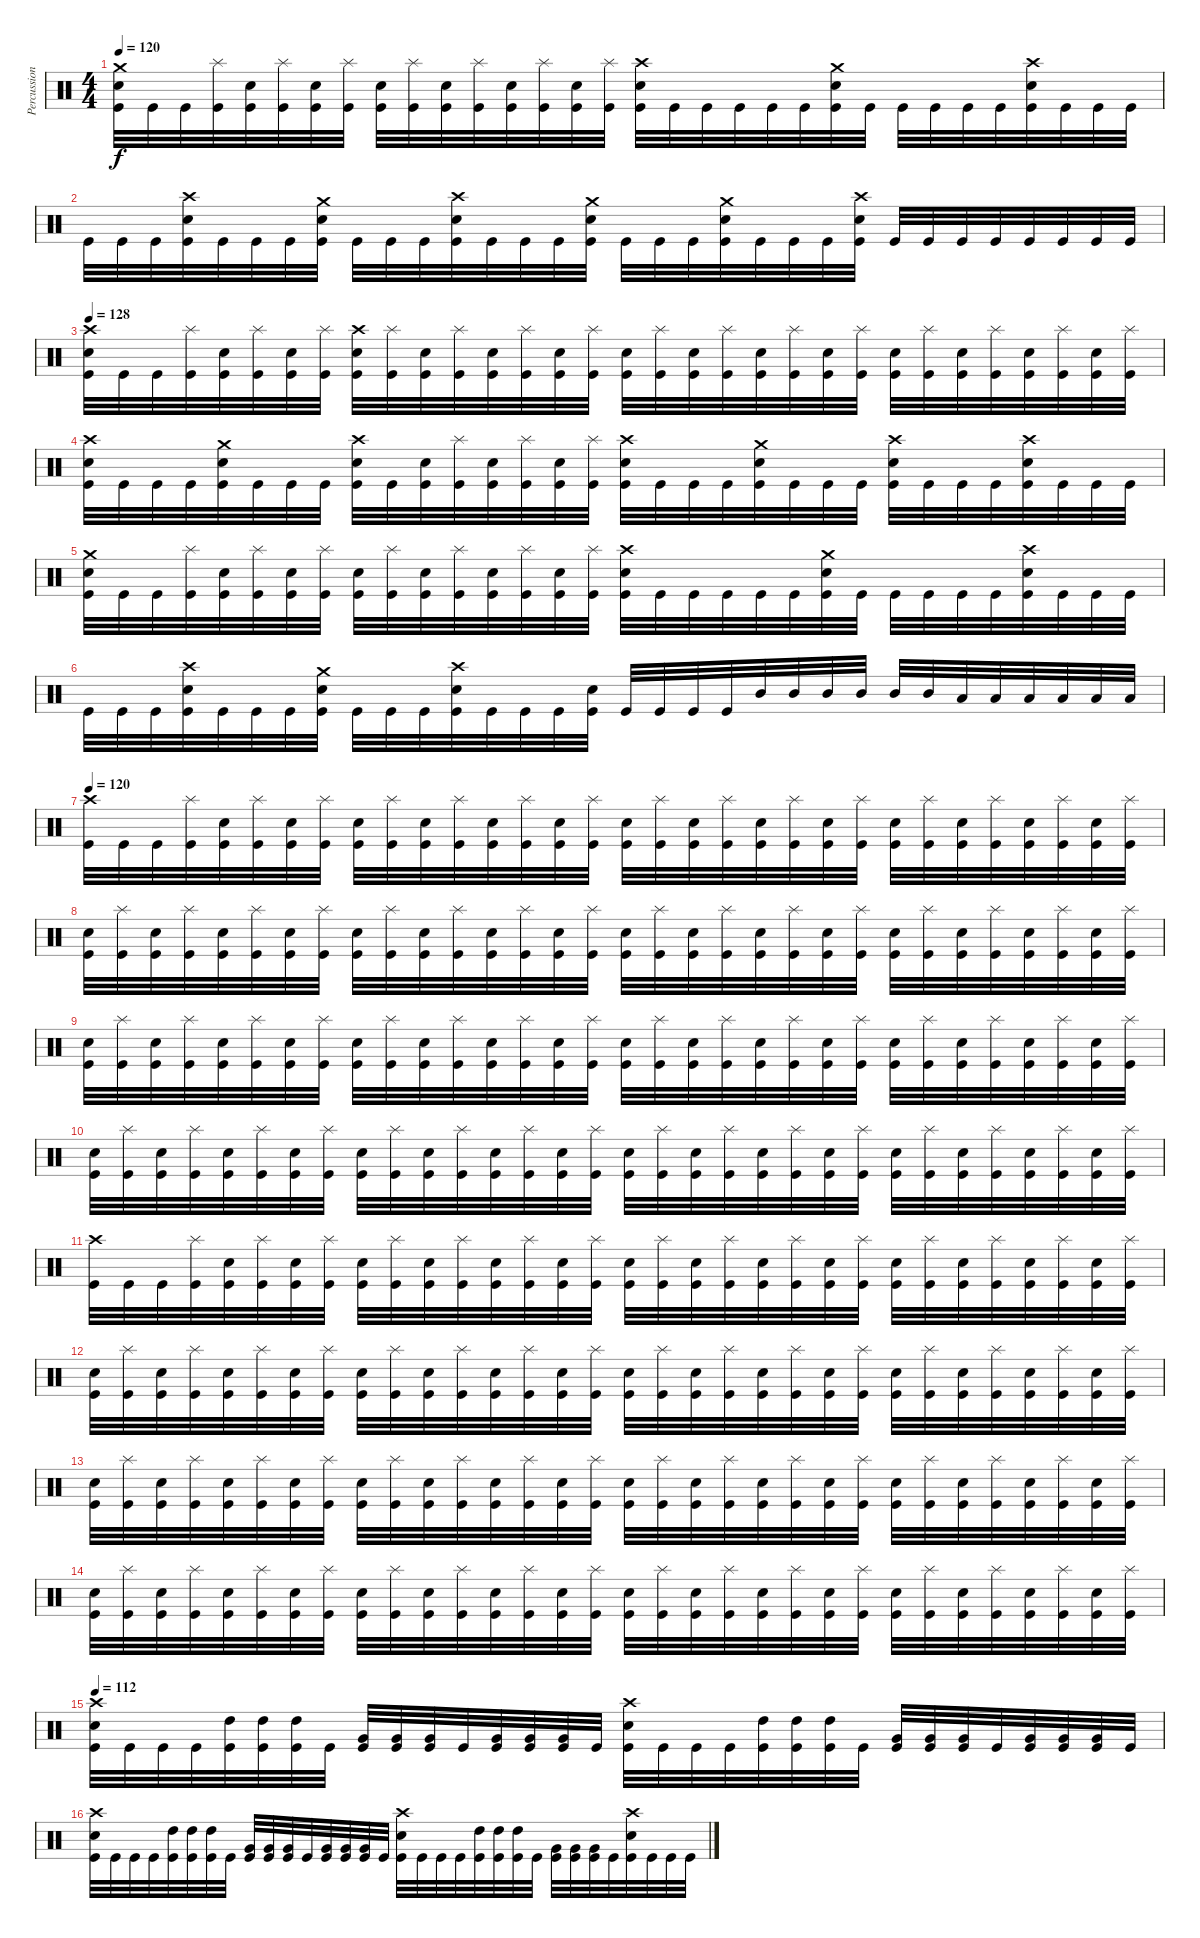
\track ("Percussion" "Percussion") {instrument percussion}
\staff {score}
\articulation defaults
\ts (4 4)
\tempo 120
\clef neutral
\ks c
("Crash medium (hit)" "Electric Snare (hit)" "Kick (hit)").32{dy f} "Kick (hit)".32 "Kick (hit)".32 ("Splash (hit)" "Kick (hit)").32 ("Electric Snare (hit)" "Kick (hit)").32 ("Splash (hit)" "Kick (hit)").32 ("Electric Snare (hit)" "Kick (hit)").32 ("Splash (hit)" "Kick (hit)").32 ("Electric Snare (hit)" "Kick (hit)").32 ("Splash (hit)" "Kick (hit)").32 ("Electric Snare (hit)" "Kick (hit)").32 ("Splash (hit)" "Kick (hit)").32 ("Electric Snare (hit)" "Kick (hit)").32 ("Splash (hit)" "Kick (hit)").32 ("Electric Snare (hit)" "Kick (hit)").32 ("Splash (hit)" "Kick (hit)").32 ("Crash high (hit)" "Electric Snare (hit)" "Kick (hit)").32 "Kick (hit)".32 "Kick (hit)".32 "Kick (hit)".32 "Kick (hit)".32 "Kick (hit)".32 ("Crash medium (hit)" "Electric Snare (hit)" "Kick (hit)").32 "Kick (hit)".32 "Kick (hit)".32 "Kick (hit)".32 "Kick (hit)".32 "Kick (hit)".32 ("Crash high (hit)" "Electric Snare (hit)" "Kick (hit)").32 "Kick (hit)".32 "Kick (hit)".32 "Kick (hit)".32 |
"Kick (hit)".32 "Kick (hit)".32 "Kick (hit)".32 ("Crash high (hit)" "Electric Snare (hit)" "Kick (hit)").32 "Kick (hit)".32 "Kick (hit)".32 "Kick (hit)".32 ("Crash medium (hit)" "Electric Snare (hit)" "Kick (hit)").32 "Kick (hit)".32 "Kick (hit)".32 "Kick (hit)".32 ("Crash high (hit)" "Electric Snare (hit)" "Kick (hit)").32 "Kick (hit)".32 "Kick (hit)".32 "Kick (hit)".32 ("Crash medium (hit)" "Electric Snare (hit)" "Kick (hit)").32 "Kick (hit)".32 "Kick (hit)".32 "Kick (hit)".32 ("Crash medium (hit)" "Electric Snare (hit)" "Kick (hit)").32 "Kick (hit)".32 "Kick (hit)".32 "Kick (hit)".32 ("Crash high (hit)" "Electric Snare (hit)" "Kick (hit)").32 "Kick (hit)".32 "Kick (hit)".32 "Kick (hit)".32 "Kick (hit)".32 "Kick (hit)".32 "Kick (hit)".32 "Kick (hit)".32 "Kick (hit)".32 |
\tempo 128
("Crash high (hit)" "Snare (hit) 2" "Kick (hit)").32 "Kick (hit)".32 "Kick (hit)".32 ("Splash (hit)" "Kick (hit)").32 ("Electric Snare (hit)" "Kick (hit)").32 ("Splash (hit)" "Kick (hit)").32 ("Electric Snare (hit)" "Kick (hit)").32 ("Splash (hit)" "Kick (hit)").32 ("Crash high (hit)" "Electric Snare (hit)" "Kick (hit)").32 ("Splash (hit)" "Kick (hit)").32 ("Electric Snare (hit)" "Kick (hit)").32 ("Splash (hit)" "Kick (hit)").32 ("Electric Snare (hit)" "Kick (hit)").32 ("Splash (hit)" "Kick (hit)").32 ("Electric Snare (hit)" "Kick (hit)").32 ("Splash (hit)" "Kick (hit)").32 ("Electric Snare (hit)" "Kick (hit)").32 ("Splash (hit)" "Kick (hit)").32 ("Electric Snare (hit)" "Kick (hit)").32 ("Splash (hit)" "Kick (hit)").32 ("Electric Snare (hit)" "Kick (hit)").32 ("Splash (hit)" "Kick (hit)").32 ("Electric Snare (hit)" "Kick (hit)").32 ("Splash (hit)" "Kick (hit)").32 ("Electric Snare (hit)" "Kick (hit)").32 ("Splash (hit)" "Kick (hit)").32 ("Electric Snare (hit)" "Kick (hit)").32 ("Splash (hit)" "Kick (hit)").32 ("Electric Snare (hit)" "Kick (hit)").32 ("Splash (hit)" "Kick (hit)").32 ("Electric Snare (hit)" "Kick (hit)").32 ("Splash (hit)" "Kick (hit)").32 |
("Crash high (hit)" "Electric Snare (hit)" "Kick (hit)").32 "Kick (hit)".32 "Kick (hit)".32 "Kick (hit)".32 ("Crash medium (hit)" "Electric Snare (hit)" "Kick (hit)").32 "Kick (hit)".32 "Kick (hit)".32 "Kick (hit)".32 ("Crash high (hit)" "Electric Snare (hit)" "Kick (hit)").32 "Kick (hit)".32 ("Electric Snare (hit)" "Kick (hit)").32 ("Splash (hit)" "Kick (hit)").32 ("Electric Snare (hit)" "Kick (hit)").32 ("Splash (hit)" "Kick (hit)").32 ("Electric Snare (hit)" "Kick (hit)").32 ("Splash (hit)" "Kick (hit)").32 ("Crash high (hit)" "Electric Snare (hit)" "Kick (hit)").32 "Kick (hit)".32 "Kick (hit)".32 "Kick (hit)".32 ("Crash medium (hit)" "Electric Snare (hit)" "Kick (hit)").32 "Kick (hit)".32 "Kick (hit)".32 "Kick (hit)".32 ("Crash high (hit)" "Electric Snare (hit)" "Kick (hit)").32 "Kick (hit)".32 "Kick (hit)".32 "Kick (hit)".32 ("Crash high (hit)" "Electric Snare (hit)" "Kick (hit)").32 "Kick (hit)".32 "Kick (hit)".32 "Kick (hit)".32 |
("Crash medium (hit)" "Electric Snare (hit)" "Kick (hit)").32 "Kick (hit)".32 "Kick (hit)".32 ("Splash (hit)" "Kick (hit)").32 ("Electric Snare (hit)" "Kick (hit)").32 ("Splash (hit)" "Kick (hit)").32 ("Electric Snare (hit)" "Kick (hit)").32 ("Splash (hit)" "Kick (hit)").32 ("Electric Snare (hit)" "Kick (hit)").32 ("Splash (hit)" "Kick (hit)").32 ("Electric Snare (hit)" "Kick (hit)").32 ("Splash (hit)" "Kick (hit)").32 ("Electric Snare (hit)" "Kick (hit)").32 ("Splash (hit)" "Kick (hit)").32 ("Electric Snare (hit)" "Kick (hit)").32 ("Splash (hit)" "Kick (hit)").32 ("Crash high (hit)" "Electric Snare (hit)" "Kick (hit)").32 "Kick (hit)".32 "Kick (hit)".32 "Kick (hit)".32 "Kick (hit)".32 "Kick (hit)".32 ("Crash medium (hit)" "Electric Snare (hit)" "Kick (hit)").32 "Kick (hit)".32 "Kick (hit)".32 "Kick (hit)".32 "Kick (hit)".32 "Kick (hit)".32 ("Crash high (hit)" "Electric Snare (hit)" "Kick (hit)").32 "Kick (hit)".32 "Kick (hit)".32 "Kick (hit)".32 |
"Kick (hit)".32 "Kick (hit)".32 "Kick (hit)".32 ("Crash high (hit)" "Electric Snare (hit)" "Kick (hit)").32 "Kick (hit)".32 "Kick (hit)".32 "Kick (hit)".32 ("Crash medium (hit)" "Electric Snare (hit)" "Kick (hit)").32 "Kick (hit)".32 "Kick (hit)".32 "Kick (hit)".32 ("Crash high (hit)" "Electric Snare (hit)" "Kick (hit)").32 "Kick (hit)".32 "Kick (hit)".32 "Kick (hit)".32 ("Electric Snare (hit)" "Kick (hit)").32 "Kick (hit)".32 "Kick (hit)".32 "Kick (hit)".32 "Kick (hit)".32 "Mid Tom (hit)".32 "Mid Tom (hit)".32 "Mid Tom (hit)".32 "Mid Tom (hit)".32 "Mid Tom (hit)".32 "Mid Tom (hit)".32 "Low Tom (hit)".32 "Low Tom (hit)".32 "Low Tom (hit)".32 "Low Tom (hit)".32 "Low Tom (hit)".32 "Low Tom (hit)".32 |
\tempo 120
("Crash high (hit)" "Kick (hit)").32{volume 14} "Kick (hit)".32 "Kick (hit)".32 ("Splash (hit)" "Kick (hit)").32 ("Electric Snare (hit)" "Kick (hit)").32 ("Splash (hit)" "Kick (hit)").32 ("Electric Snare (hit)" "Kick (hit)").32 ("Splash (hit)" "Kick (hit)").32 ("Electric Snare (hit)" "Kick (hit)").32 ("Splash (hit)" "Kick (hit)").32 ("Electric Snare (hit)" "Kick (hit)").32 ("Splash (hit)" "Kick (hit)").32 ("Electric Snare (hit)" "Kick (hit)").32 ("Splash (hit)" "Kick (hit)").32 ("Electric Snare (hit)" "Kick (hit)").32 ("Splash (hit)" "Kick (hit)").32 ("Electric Snare (hit)" "Kick (hit)").32 ("Splash (hit)" "Kick (hit)").32 ("Electric Snare (hit)" "Kick (hit)").32 ("Splash (hit)" "Kick (hit)").32 ("Electric Snare (hit)" "Kick (hit)").32 ("Splash (hit)" "Kick (hit)").32 ("Electric Snare (hit)" "Kick (hit)").32 ("Splash (hit)" "Kick (hit)").32 ("Electric Snare (hit)" "Kick (hit)").32 ("Splash (hit)" "Kick (hit)").32 ("Electric Snare (hit)" "Kick (hit)").32 ("Splash (hit)" "Kick (hit)").32 ("Electric Snare (hit)" "Kick (hit)").32 ("Splash (hit)" "Kick (hit)").32 ("Electric Snare (hit)" "Kick (hit)").32 ("Splash (hit)" "Kick (hit)").32 |
("Electric Snare (hit)" "Kick (hit)").32{volume 14} ("Splash (hit)" "Kick (hit)").32 ("Electric Snare (hit)" "Kick (hit)").32 ("Splash (hit)" "Kick (hit)").32 ("Electric Snare (hit)" "Kick (hit)").32 ("Splash (hit)" "Kick (hit)").32 ("Electric Snare (hit)" "Kick (hit)").32 ("Splash (hit)" "Kick (hit)").32 ("Electric Snare (hit)" "Kick (hit)").32 ("Splash (hit)" "Kick (hit)").32 ("Electric Snare (hit)" "Kick (hit)").32 ("Splash (hit)" "Kick (hit)").32 ("Electric Snare (hit)" "Kick (hit)").32 ("Splash (hit)" "Kick (hit)").32 ("Electric Snare (hit)" "Kick (hit)").32 ("Splash (hit)" "Kick (hit)").32 ("Electric Snare (hit)" "Kick (hit)").32 ("Splash (hit)" "Kick (hit)").32 ("Electric Snare (hit)" "Kick (hit)").32 ("Splash (hit)" "Kick (hit)").32 ("Electric Snare (hit)" "Kick (hit)").32 ("Splash (hit)" "Kick (hit)").32 ("Electric Snare (hit)" "Kick (hit)").32 ("Splash (hit)" "Kick (hit)").32 ("Electric Snare (hit)" "Kick (hit)").32 ("Splash (hit)" "Kick (hit)").32 ("Electric Snare (hit)" "Kick (hit)").32 ("Splash (hit)" "Kick (hit)").32 ("Electric Snare (hit)" "Kick (hit)").32 ("Splash (hit)" "Kick (hit)").32 ("Electric Snare (hit)" "Kick (hit)").32 ("Splash (hit)" "Kick (hit)").32 |
("Electric Snare (hit)" "Kick (hit)").32{volume 14} ("Splash (hit)" "Kick (hit)").32 ("Electric Snare (hit)" "Kick (hit)").32 ("Splash (hit)" "Kick (hit)").32 ("Electric Snare (hit)" "Kick (hit)").32 ("Splash (hit)" "Kick (hit)").32 ("Electric Snare (hit)" "Kick (hit)").32 ("Splash (hit)" "Kick (hit)").32 ("Electric Snare (hit)" "Kick (hit)").32 ("Splash (hit)" "Kick (hit)").32 ("Electric Snare (hit)" "Kick (hit)").32 ("Splash (hit)" "Kick (hit)").32 ("Electric Snare (hit)" "Kick (hit)").32 ("Splash (hit)" "Kick (hit)").32 ("Electric Snare (hit)" "Kick (hit)").32 ("Splash (hit)" "Kick (hit)").32 ("Electric Snare (hit)" "Kick (hit)").32 ("Splash (hit)" "Kick (hit)").32 ("Electric Snare (hit)" "Kick (hit)").32 ("Splash (hit)" "Kick (hit)").32 ("Electric Snare (hit)" "Kick (hit)").32 ("Splash (hit)" "Kick (hit)").32 ("Electric Snare (hit)" "Kick (hit)").32 ("Splash (hit)" "Kick (hit)").32 ("Electric Snare (hit)" "Kick (hit)").32 ("Splash (hit)" "Kick (hit)").32 ("Electric Snare (hit)" "Kick (hit)").32 ("Splash (hit)" "Kick (hit)").32 ("Electric Snare (hit)" "Kick (hit)").32 ("Splash (hit)" "Kick (hit)").32 ("Electric Snare (hit)" "Kick (hit)").32 ("Splash (hit)" "Kick (hit)").32 |
("Electric Snare (hit)" "Kick (hit)").32{volume 14} ("Splash (hit)" "Kick (hit)").32 ("Electric Snare (hit)" "Kick (hit)").32 ("Splash (hit)" "Kick (hit)").32 ("Electric Snare (hit)" "Kick (hit)").32 ("Splash (hit)" "Kick (hit)").32 ("Electric Snare (hit)" "Kick (hit)").32 ("Splash (hit)" "Kick (hit)").32 ("Electric Snare (hit)" "Kick (hit)").32 ("Splash (hit)" "Kick (hit)").32 ("Electric Snare (hit)" "Kick (hit)").32 ("Splash (hit)" "Kick (hit)").32 ("Electric Snare (hit)" "Kick (hit)").32 ("Splash (hit)" "Kick (hit)").32 ("Electric Snare (hit)" "Kick (hit)").32 ("Splash (hit)" "Kick (hit)").32 ("Electric Snare (hit)" "Kick (hit)").32 ("Splash (hit)" "Kick (hit)").32 ("Electric Snare (hit)" "Kick (hit)").32 ("Splash (hit)" "Kick (hit)").32 ("Electric Snare (hit)" "Kick (hit)").32 ("Splash (hit)" "Kick (hit)").32 ("Electric Snare (hit)" "Kick (hit)").32 ("Splash (hit)" "Kick (hit)").32 ("Electric Snare (hit)" "Kick (hit)").32 ("Splash (hit)" "Kick (hit)").32 ("Electric Snare (hit)" "Kick (hit)").32 ("Splash (hit)" "Kick (hit)").32 ("Electric Snare (hit)" "Kick (hit)").32 ("Splash (hit)" "Kick (hit)").32 ("Electric Snare (hit)" "Kick (hit)").32 ("Splash (hit)" "Kick (hit)").32 |
("Crash high (hit)" "Kick (hit)").32{volume 14} "Kick (hit)".32 "Kick (hit)".32 ("Splash (hit)" "Kick (hit)").32 ("Electric Snare (hit)" "Kick (hit)").32 ("Splash (hit)" "Kick (hit)").32 ("Electric Snare (hit)" "Kick (hit)").32 ("Splash (hit)" "Kick (hit)").32 ("Electric Snare (hit)" "Kick (hit)").32 ("Splash (hit)" "Kick (hit)").32 ("Electric Snare (hit)" "Kick (hit)").32 ("Splash (hit)" "Kick (hit)").32 ("Electric Snare (hit)" "Kick (hit)").32 ("Splash (hit)" "Kick (hit)").32 ("Electric Snare (hit)" "Kick (hit)").32 ("Splash (hit)" "Kick (hit)").32 ("Electric Snare (hit)" "Kick (hit)").32 ("Splash (hit)" "Kick (hit)").32 ("Electric Snare (hit)" "Kick (hit)").32 ("Splash (hit)" "Kick (hit)").32 ("Electric Snare (hit)" "Kick (hit)").32 ("Splash (hit)" "Kick (hit)").32 ("Electric Snare (hit)" "Kick (hit)").32 ("Splash (hit)" "Kick (hit)").32 ("Electric Snare (hit)" "Kick (hit)").32 ("Splash (hit)" "Kick (hit)").32 ("Electric Snare (hit)" "Kick (hit)").32 ("Splash (hit)" "Kick (hit)").32 ("Electric Snare (hit)" "Kick (hit)").32 ("Splash (hit)" "Kick (hit)").32 ("Electric Snare (hit)" "Kick (hit)").32 ("Splash (hit)" "Kick (hit)").32 |
("Electric Snare (hit)" "Kick (hit)").32{volume 14} ("Splash (hit)" "Kick (hit)").32 ("Electric Snare (hit)" "Kick (hit)").32 ("Splash (hit)" "Kick (hit)").32 ("Electric Snare (hit)" "Kick (hit)").32 ("Splash (hit)" "Kick (hit)").32 ("Electric Snare (hit)" "Kick (hit)").32 ("Splash (hit)" "Kick (hit)").32 ("Electric Snare (hit)" "Kick (hit)").32 ("Splash (hit)" "Kick (hit)").32 ("Electric Snare (hit)" "Kick (hit)").32 ("Splash (hit)" "Kick (hit)").32 ("Electric Snare (hit)" "Kick (hit)").32 ("Splash (hit)" "Kick (hit)").32 ("Electric Snare (hit)" "Kick (hit)").32 ("Splash (hit)" "Kick (hit)").32 ("Electric Snare (hit)" "Kick (hit)").32 ("Splash (hit)" "Kick (hit)").32 ("Electric Snare (hit)" "Kick (hit)").32 ("Splash (hit)" "Kick (hit)").32 ("Electric Snare (hit)" "Kick (hit)").32 ("Splash (hit)" "Kick (hit)").32 ("Electric Snare (hit)" "Kick (hit)").32 ("Splash (hit)" "Kick (hit)").32 ("Electric Snare (hit)" "Kick (hit)").32 ("Splash (hit)" "Kick (hit)").32 ("Electric Snare (hit)" "Kick (hit)").32 ("Splash (hit)" "Kick (hit)").32 ("Electric Snare (hit)" "Kick (hit)").32 ("Splash (hit)" "Kick (hit)").32 ("Electric Snare (hit)" "Kick (hit)").32 ("Splash (hit)" "Kick (hit)").32 |
("Electric Snare (hit)" "Kick (hit)").32{volume 14} ("Splash (hit)" "Kick (hit)").32 ("Electric Snare (hit)" "Kick (hit)").32 ("Splash (hit)" "Kick (hit)").32 ("Electric Snare (hit)" "Kick (hit)").32 ("Splash (hit)" "Kick (hit)").32 ("Electric Snare (hit)" "Kick (hit)").32 ("Splash (hit)" "Kick (hit)").32 ("Electric Snare (hit)" "Kick (hit)").32 ("Splash (hit)" "Kick (hit)").32 ("Electric Snare (hit)" "Kick (hit)").32 ("Splash (hit)" "Kick (hit)").32 ("Electric Snare (hit)" "Kick (hit)").32 ("Splash (hit)" "Kick (hit)").32 ("Electric Snare (hit)" "Kick (hit)").32 ("Splash (hit)" "Kick (hit)").32 ("Electric Snare (hit)" "Kick (hit)").32 ("Splash (hit)" "Kick (hit)").32 ("Electric Snare (hit)" "Kick (hit)").32 ("Splash (hit)" "Kick (hit)").32 ("Electric Snare (hit)" "Kick (hit)").32 ("Splash (hit)" "Kick (hit)").32 ("Electric Snare (hit)" "Kick (hit)").32 ("Splash (hit)" "Kick (hit)").32 ("Electric Snare (hit)" "Kick (hit)").32 ("Splash (hit)" "Kick (hit)").32 ("Electric Snare (hit)" "Kick (hit)").32 ("Splash (hit)" "Kick (hit)").32 ("Electric Snare (hit)" "Kick (hit)").32 ("Splash (hit)" "Kick (hit)").32 ("Electric Snare (hit)" "Kick (hit)").32 ("Splash (hit)" "Kick (hit)").32 |
("Electric Snare (hit)" "Kick (hit)").32{volume 14} ("Splash (hit)" "Kick (hit)").32 ("Electric Snare (hit)" "Kick (hit)").32 ("Splash (hit)" "Kick (hit)").32 ("Electric Snare (hit)" "Kick (hit)").32 ("Splash (hit)" "Kick (hit)").32 ("Electric Snare (hit)" "Kick (hit)").32 ("Splash (hit)" "Kick (hit)").32 ("Electric Snare (hit)" "Kick (hit)").32 ("Splash (hit)" "Kick (hit)").32 ("Electric Snare (hit)" "Kick (hit)").32 ("Splash (hit)" "Kick (hit)").32 ("Electric Snare (hit)" "Kick (hit)").32 ("Splash (hit)" "Kick (hit)").32 ("Electric Snare (hit)" "Kick (hit)").32 ("Splash (hit)" "Kick (hit)").32 ("Electric Snare (hit)" "Kick (hit)").32 ("Splash (hit)" "Kick (hit)").32 ("Electric Snare (hit)" "Kick (hit)").32 ("Splash (hit)" "Kick (hit)").32 ("Electric Snare (hit)" "Kick (hit)").32 ("Splash (hit)" "Kick (hit)").32 ("Electric Snare (hit)" "Kick (hit)").32 ("Splash (hit)" "Kick (hit)").32 ("Electric Snare (hit)" "Kick (hit)").32 ("Splash (hit)" "Kick (hit)").32 ("Electric Snare (hit)" "Kick (hit)").32 ("Splash (hit)" "Kick (hit)").32 ("Electric Snare (hit)" "Kick (hit)").32 ("Splash (hit)" "Kick (hit)").32 ("Electric Snare (hit)" "Kick (hit)").32 ("Splash (hit)" "Kick (hit)").32 |
\tempo 112
("Crash high (hit)" "Electric Snare (hit)" "Kick (hit)").32 "Kick (hit)".32 "Kick (hit)".32 "Kick (hit)".32 ("High Tom (hit)" "Kick (hit)").32 ("High Tom (hit)" "Kick (hit)").32 ("High Tom (hit)" "Kick (hit)").32 "Kick (hit)".32 ("Very Low Tom (hit)" "Kick (hit)").32 ("Very Low Tom (hit)" "Kick (hit)").32 ("Very Low Tom (hit)" "Kick (hit)").32 "Kick (hit)".32 ("Very Low Tom (hit)" "Kick (hit)").32 ("Very Low Tom (hit)" "Kick (hit)").32 ("Very Low Tom (hit)" "Kick (hit)").32 "Kick (hit)".32 ("Crash high (hit)" "Electric Snare (hit)" "Kick (hit)").32 "Kick (hit)".32 "Kick (hit)".32 "Kick (hit)".32 ("High Tom (hit)" "Kick (hit)").32 ("High Tom (hit)" "Kick (hit)").32 ("High Tom (hit)" "Kick (hit)").32 "Kick (hit)".32 ("Very Low Tom (hit)" "Kick (hit)").32 ("Very Low Tom (hit)" "Kick (hit)").32 ("Very Low Tom (hit)" "Kick (hit)").32 "Kick (hit)".32 ("Very Low Tom (hit)" "Kick (hit)").32 ("Very Low Tom (hit)" "Kick (hit)").32 ("Very Low Tom (hit)" "Kick (hit)").32 "Kick (hit)".32 |
("Crash high (hit)" "Electric Snare (hit)" "Kick (hit)").32 "Kick (hit)".32 "Kick (hit)".32 "Kick (hit)".32 ("High Tom (hit)" "Kick (hit)").32 ("High Tom (hit)" "Kick (hit)").32 ("High Tom (hit)" "Kick (hit)").32 "Kick (hit)".32 ("Very Low Tom (hit)" "Kick (hit)").32 ("Very Low Tom (hit)" "Kick (hit)").32 ("Very Low Tom (hit)" "Kick (hit)").32 "Kick (hit)".32 ("Very Low Tom (hit)" "Kick (hit)").32 ("Very Low Tom (hit)" "Kick (hit)").32 ("Very Low Tom (hit)" "Kick (hit)").32 "Kick (hit)".32 ("Crash high (hit)" "Electric Snare (hit)" "Kick (hit)").32 "Kick (hit)".32 "Kick (hit)".32 "Kick (hit)".32 ("High Tom (hit)" "Kick (hit)").32 ("High Tom (hit)" "Kick (hit)").32 ("High Tom (hit)" "Kick (hit)").32 "Kick (hit)".32 ("Very Low Tom (hit)" "Kick (hit)").32 ("Very Low Tom (hit)" "Kick (hit)").32 ("Very Low Tom (hit)" "Kick (hit)").32 "Kick (hit)".32 ("Crash high (hit)" "Electric Snare (hit)" "Kick (hit)").32 "Kick (hit)".32 "Kick (hit)".32 "Kick (hit)".32
